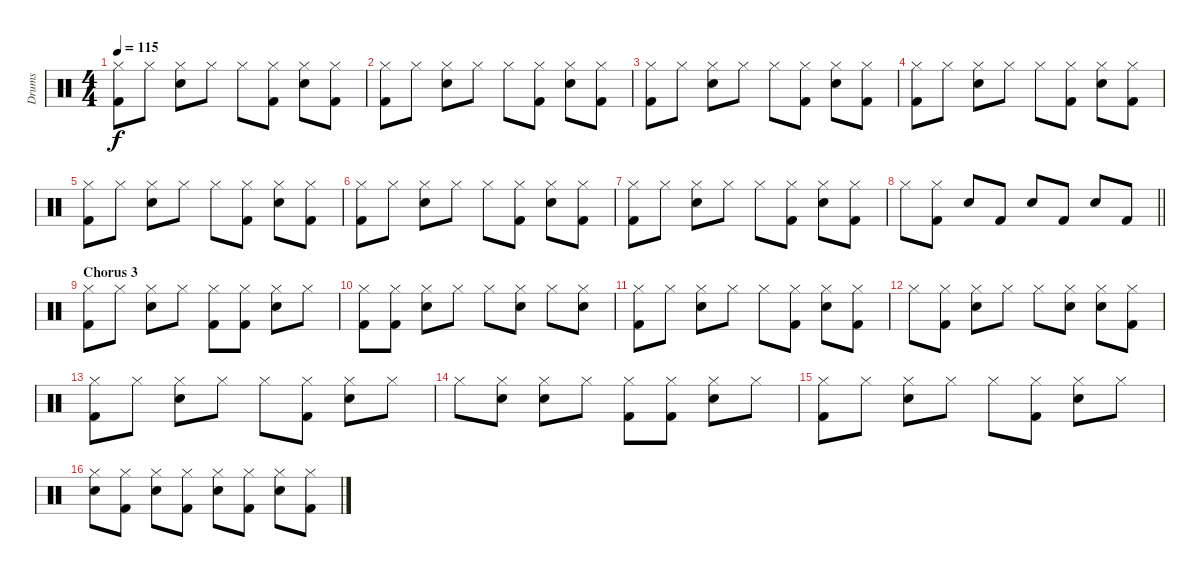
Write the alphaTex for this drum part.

\track ("Drums" "Drums") {instrument percussion}
\staff {score}
\articulation defaults
\ts (4 4)
\tempo 115
\clef neutral
\ks c
("Hi-Hat (closed)" "Kick (hit) 2").8{dy f} "Hi-Hat (closed)".8 ("Hi-Hat (closed)" "Snare (hit) 2").8 "Hi-Hat (closed)".8 "Hi-Hat (closed)".8 ("Hi-Hat (closed)" "Kick (hit) 2").8 ("Hi-Hat (closed)" "Snare (hit) 2").8 ("Hi-Hat (closed)" "Kick (hit) 2").8 |
("Hi-Hat (closed)" "Kick (hit) 2").8 "Hi-Hat (closed)".8 ("Hi-Hat (closed)" "Snare (hit) 2").8 "Hi-Hat (closed)".8 "Hi-Hat (closed)".8 ("Hi-Hat (closed)" "Kick (hit) 2").8 ("Hi-Hat (closed)" "Snare (hit) 2").8 ("Hi-Hat (closed)" "Kick (hit) 2").8 |
("Hi-Hat (closed)" "Kick (hit) 2").8 "Hi-Hat (closed)".8 ("Hi-Hat (closed)" "Snare (hit) 2").8 "Hi-Hat (closed)".8 "Hi-Hat (closed)".8 ("Hi-Hat (closed)" "Kick (hit) 2").8 ("Hi-Hat (closed)" "Snare (hit) 2").8 ("Hi-Hat (closed)" "Kick (hit) 2").8 |
("Hi-Hat (closed)" "Kick (hit) 2").8 "Hi-Hat (closed)".8 ("Hi-Hat (closed)" "Snare (hit) 2").8 "Hi-Hat (closed)".8 "Hi-Hat (closed)".8 ("Hi-Hat (closed)" "Kick (hit) 2").8 ("Hi-Hat (closed)" "Snare (hit) 2").8 ("Hi-Hat (closed)" "Kick (hit) 2").8 |
("Hi-Hat (closed)" "Kick (hit) 2").8 "Hi-Hat (closed)".8 ("Hi-Hat (closed)" "Snare (hit) 2").8 "Hi-Hat (closed)".8 "Hi-Hat (closed)".8 ("Hi-Hat (closed)" "Kick (hit) 2").8 ("Hi-Hat (closed)" "Snare (hit) 2").8 ("Hi-Hat (closed)" "Kick (hit) 2").8 |
("Hi-Hat (closed)" "Kick (hit) 2").8 "Hi-Hat (closed)".8 ("Hi-Hat (closed)" "Snare (hit) 2").8 "Hi-Hat (closed)".8 "Hi-Hat (closed)".8 ("Hi-Hat (closed)" "Kick (hit) 2").8 ("Hi-Hat (closed)" "Snare (hit) 2").8 ("Hi-Hat (closed)" "Kick (hit) 2").8 |
("Hi-Hat (closed)" "Kick (hit) 2").8 "Hi-Hat (closed)".8 ("Hi-Hat (closed)" "Snare (hit) 2").8 "Hi-Hat (closed)".8 "Hi-Hat (closed)".8 ("Hi-Hat (closed)" "Kick (hit) 2").8 ("Hi-Hat (closed)" "Snare (hit) 2").8 ("Hi-Hat (closed)" "Kick (hit) 2").8 |
\barLineRight lightlight "Hi-Hat (closed)".8
("Hi-Hat (closed)" "Kick (hit) 2").8 "Snare (hit) 2".8 "Kick (hit) 2".8 "Snare (hit) 2".8 "Kick (hit) 2".8 "Snare (hit) 2".8 "Kick (hit) 2".8 |
\section ("" "Chorus 3")
("Hi-Hat (closed)" "Kick (hit) 2").8 "Hi-Hat (closed)".8 ("Hi-Hat (closed)" "Snare (hit) 2").8 "Hi-Hat (closed)".8 ("Hi-Hat (closed)" "Kick (hit) 2").8 ("Hi-Hat (closed)" "Kick (hit) 2").8 ("Hi-Hat (closed)" "Snare (hit) 2").8 "Hi-Hat (closed)".8 |
("Hi-Hat (closed)" "Kick (hit) 2").8 ("Hi-Hat (closed)" "Kick (hit) 2").8 ("Hi-Hat (closed)" "Snare (hit) 2").8 "Hi-Hat (closed)".8 "Hi-Hat (closed)".8 ("Hi-Hat (closed)" "Snare (hit) 2").8 "Hi-Hat (closed)".8 ("Hi-Hat (closed)" "Snare (hit) 2").8 |
("Hi-Hat (closed)" "Kick (hit) 2").8 "Hi-Hat (closed)".8 ("Hi-Hat (closed)" "Snare (hit) 2").8 "Hi-Hat (closed)".8 "Hi-Hat (closed)".8 ("Hi-Hat (closed)" "Kick (hit) 2").8 ("Hi-Hat (closed)" "Snare (hit) 2").8 ("Hi-Hat (closed)" "Kick (hit) 2").8 |
"Hi-Hat (closed)".8 ("Hi-Hat (closed)" "Kick (hit) 2").8 ("Hi-Hat (closed)" "Snare (hit) 2").8 "Hi-Hat (closed)".8 "Hi-Hat (closed)".8 ("Hi-Hat (closed)" "Snare (hit) 2").8 ("Hi-Hat (closed)" "Snare (hit) 2").8 ("Hi-Hat (closed)" "Kick (hit) 2").8 |
("Hi-Hat (closed)" "Kick (hit) 2").8 "Hi-Hat (closed)".8 ("Hi-Hat (closed)" "Snare (hit) 2").8 "Hi-Hat (closed)".8 "Hi-Hat (closed)".8 ("Hi-Hat (closed)" "Kick (hit) 2").8 ("Hi-Hat (closed)" "Snare (hit) 2").8 "Hi-Hat (closed)".8 |
"Hi-Hat (closed)".8 ("Hi-Hat (closed)" "Snare (hit) 2").8 ("Hi-Hat (closed)" "Snare (hit) 2").8 "Hi-Hat (closed)".8 ("Hi-Hat (closed)" "Kick (hit) 2").8 ("Hi-Hat (closed)" "Kick (hit) 2").8 ("Hi-Hat (closed)" "Snare (hit) 2").8 "Hi-Hat (closed)".8 |
("Hi-Hat (closed)" "Kick (hit) 2").8 "Hi-Hat (closed)".8 ("Hi-Hat (closed)" "Snare (hit) 2").8 "Hi-Hat (closed)".8 "Hi-Hat (closed)".8 ("Hi-Hat (closed)" "Kick (hit) 2").8 ("Hi-Hat (closed)" "Snare (hit) 2").8 "Hi-Hat (closed)".8 |
("Hi-Hat (closed)" "Snare (hit) 2").8 ("Hi-Hat (closed)" "Kick (hit) 2").8 ("Hi-Hat (closed)" "Snare (hit) 2").8 ("Hi-Hat (closed)" "Kick (hit) 2").8 ("Hi-Hat (closed)" "Snare (hit) 2").8 ("Hi-Hat (closed)" "Kick (hit) 2").8 ("Hi-Hat (closed)" "Snare (hit) 2").8 ("Hi-Hat (closed)" "Kick (hit) 2").8
